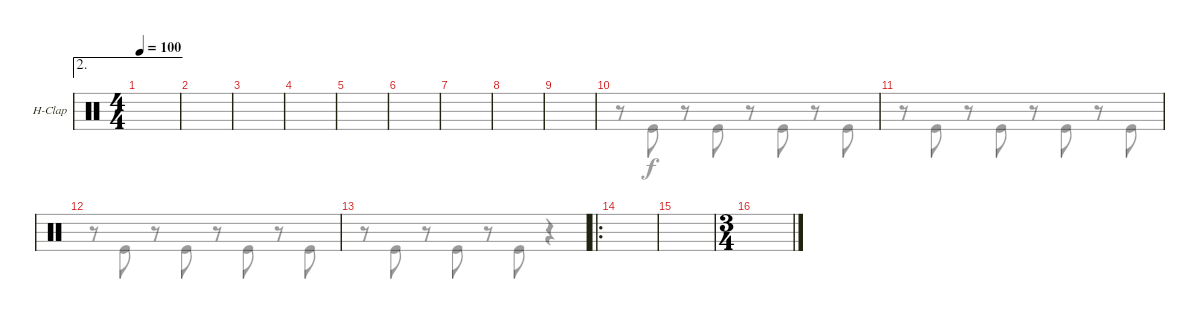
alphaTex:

\defaultSystemsLayout 4
\bracketExtendMode groupsimilarinstruments
\firstSystemTrackNameOrientation horizontal
\otherSystemsTrackNameOrientation horizontal
\track ("Hand Clap" "H-Clap") {instrument percussion}
\staff {score}
\articulation defaults
\voice
\ae 2
\ts (4 4)
\tempo 100
\clef neutral
\scale
0.382576
\ks c
|
\scale
0.212121 |
\scale
0.333333 |
\scale
0.333333 |
\scale
0.333333 |
\scale
0.333333 |
\scale
0.333333 |
\scale
0.333333 |
\scale
0.333333 |
\scale
0.333333 |
\scale
0.333333 |
|
|
\ro
|
|
\ts (3 4)
\voice
\clef neutral
\ottava regular
\simile none
\scale
0.382576
\ks c
|
\scale
0.212121 |
\scale
0.333333 |
\scale
0.333333 |
\scale
0.333333 |
\scale
0.333333 |
\scale
0.333333 |
\scale
0.333333 |
\scale
0.333333 |
\scale
0.333333 r.8 "Kick (hit)".8 r.8 "Kick (hit)".8 r.8 "Kick (hit)".8 r.8 "Kick (hit)".8 |
\scale
0.333333 r.8 "Kick (hit)".8 r.8 "Kick (hit)".8 r.8 "Kick (hit)".8 r.8 "Kick (hit)".8 |
r.8 "Kick (hit)".8 r.8 "Kick (hit)".8 r.8 "Kick (hit)".8 r.8 "Kick (hit)".8 |
r.8 "Kick (hit)".8 r.8 "Kick (hit)".8 r.8 "Kick (hit)".8 r.4 |
|
|
